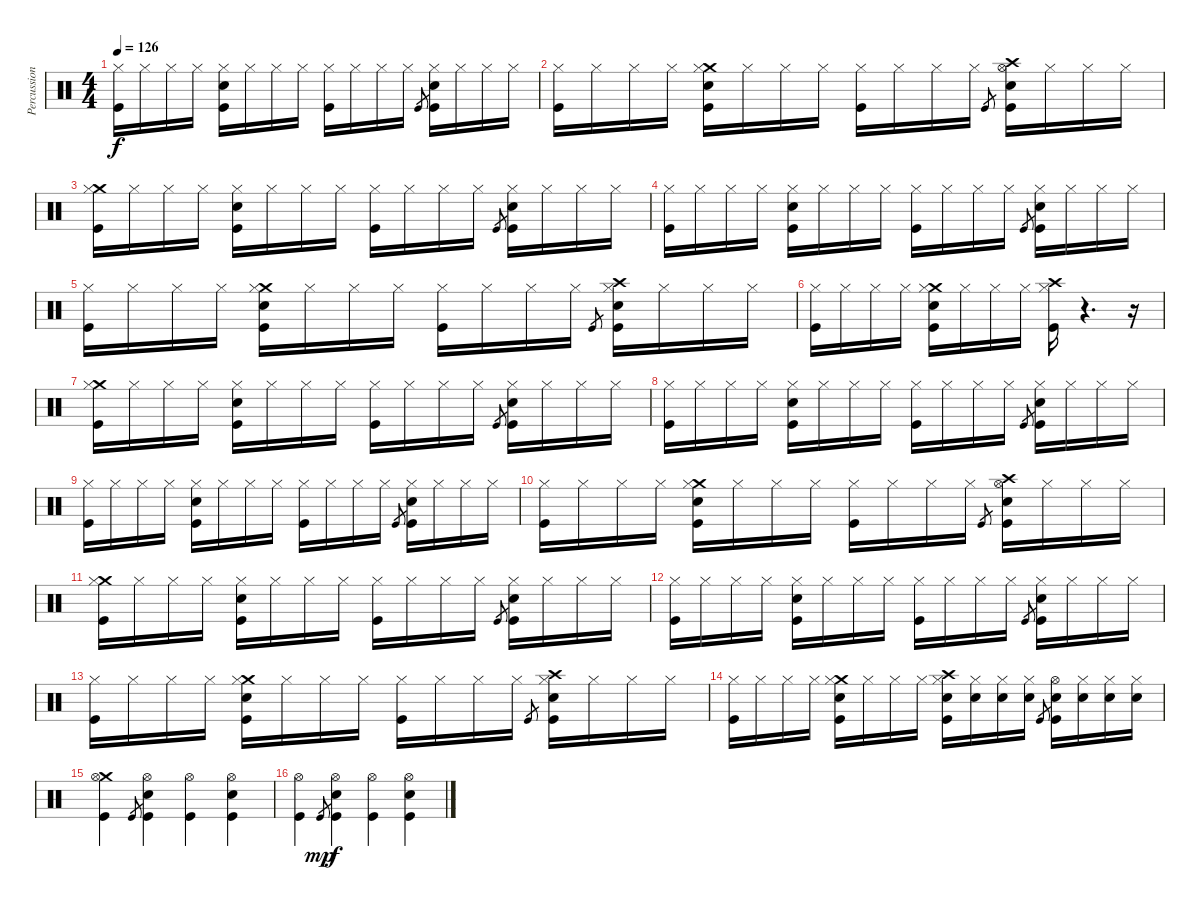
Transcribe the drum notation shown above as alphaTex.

\track ("Percussion" "Percussion") {instrument percussion}
\staff {score}
\articulation defaults
\ts (4 4)
\tempo 126
\clef neutral
\ks c
("Hi-Hat (closed)" "Kick (hit)").16{dy f} "Hi-Hat (closed)".16 "Hi-Hat (closed)".16 "Hi-Hat (closed)".16 ("Hi-Hat (closed)" "Snare (hit) 2" "Kick (hit)").16 "Hi-Hat (closed)".16 "Hi-Hat (closed)".16 "Hi-Hat (closed)".16 ("Hi-Hat (closed)" "Kick (hit)").16 "Hi-Hat (closed)".16 "Hi-Hat (closed)".16 "Hi-Hat (closed)".16 "Kick (hit)".8{gr} ("Hi-Hat (closed)" "Snare (hit) 2" "Kick (hit)").16 "Hi-Hat (closed)".16 "Hi-Hat (closed)".16 "Hi-Hat (closed)".16 |
("Hi-Hat (closed)" "Kick (hit)").16 "Hi-Hat (closed)".16 "Hi-Hat (closed)".16 "Hi-Hat (closed)".16 ("Crash medium (hit)" "Hi-Hat (closed)" "Snare (hit) 2" "Kick (hit)").16 "Hi-Hat (closed)".16 "Hi-Hat (closed)".16 "Hi-Hat (closed)".16 ("Hi-Hat (closed)" "Kick (hit)").16 "Hi-Hat (closed)".16 "Hi-Hat (closed)".16 "Hi-Hat (closed)".16 "Kick (hit)".8{gr} ("Crash high (hit)" "Hi-Hat (open)" "Snare (hit) 2" "Kick (hit)").16 "Hi-Hat (closed)".16 "Hi-Hat (closed)".16 "Hi-Hat (closed)".16 |
("Crash medium (hit)" "Hi-Hat (closed)" "Kick (hit)").16 "Hi-Hat (closed)".16 "Hi-Hat (closed)".16 "Hi-Hat (closed)".16 ("Hi-Hat (closed)" "Snare (hit) 2" "Kick (hit)").16 "Hi-Hat (closed)".16 "Hi-Hat (closed)".16 "Hi-Hat (closed)".16 ("Hi-Hat (closed)" "Kick (hit)").16 "Hi-Hat (closed)".16 "Hi-Hat (closed)".16 "Hi-Hat (closed)".16 "Kick (hit)".8{gr} ("Hi-Hat (closed)" "Snare (hit) 2" "Kick (hit)").16 "Hi-Hat (closed)".16 "Hi-Hat (closed)".16 "Hi-Hat (closed)".16 |
("Hi-Hat (closed)" "Kick (hit)").16 "Hi-Hat (closed)".16 "Hi-Hat (closed)".16 "Hi-Hat (closed)".16 ("Hi-Hat (closed)" "Snare (hit) 2" "Kick (hit)").16 "Hi-Hat (closed)".16 "Hi-Hat (closed)".16 "Hi-Hat (closed)".16 ("Hi-Hat (closed)" "Kick (hit)").16 "Hi-Hat (closed)".16 "Hi-Hat (closed)".16 "Hi-Hat (closed)".16 "Kick (hit)".8{gr} ("Hi-Hat (closed)" "Snare (hit) 2" "Kick (hit)").16 "Hi-Hat (closed)".16 "Hi-Hat (closed)".16 "Hi-Hat (closed)".16 |
("Hi-Hat (closed)" "Kick (hit)").16 "Hi-Hat (closed)".16 "Hi-Hat (closed)".16 "Hi-Hat (closed)".16 ("Crash medium (hit)" "Hi-Hat (closed)" "Snare (hit) 2" "Kick (hit)").16 "Hi-Hat (closed)".16 "Hi-Hat (closed)".16 "Hi-Hat (closed)".16 ("Hi-Hat (closed)" "Kick (hit)").16 "Hi-Hat (closed)".16 "Hi-Hat (closed)".16 "Hi-Hat (closed)".16 "Kick (hit)".8{gr} ("Crash high (hit)" "Hi-Hat (closed)" "Snare (hit) 2" "Kick (hit)").16 "Hi-Hat (closed)".16 "Hi-Hat (closed)".16 "Hi-Hat (closed)".16 |
("Hi-Hat (closed)" "Kick (hit)").16 "Hi-Hat (closed)".16 "Hi-Hat (closed)".16 "Hi-Hat (closed)".16 ("Crash medium (hit)" "Hi-Hat (closed)" "Snare (hit) 2" "Kick (hit)").16 "Hi-Hat (closed)".16 "Hi-Hat (closed)".16 "Hi-Hat (closed)".16 ("Crash high (hit)" "Hi-Hat (closed)" "Kick (hit)").16 r.4{d} r.16 |
("Crash medium (hit)" "Hi-Hat (closed)" "Kick (hit)").16 "Hi-Hat (closed)".16 "Hi-Hat (closed)".16 "Hi-Hat (closed)".16 ("Hi-Hat (closed)" "Snare (hit) 2" "Kick (hit)").16 "Hi-Hat (closed)".16 "Hi-Hat (closed)".16 "Hi-Hat (closed)".16 ("Hi-Hat (closed)" "Kick (hit)").16 "Hi-Hat (closed)".16 "Hi-Hat (closed)".16 "Hi-Hat (closed)".16 "Kick (hit)".8{gr} ("Hi-Hat (closed)" "Snare (hit) 2" "Kick (hit)").16 "Hi-Hat (closed)".16 "Hi-Hat (closed)".16 "Hi-Hat (closed)".16 |
("Hi-Hat (closed)" "Kick (hit)").16 "Hi-Hat (closed)".16 "Hi-Hat (closed)".16 "Hi-Hat (closed)".16 ("Hi-Hat (closed)" "Snare (hit) 2" "Kick (hit)").16 "Hi-Hat (closed)".16 "Hi-Hat (closed)".16 "Hi-Hat (closed)".16 ("Hi-Hat (closed)" "Kick (hit)").16 "Hi-Hat (closed)".16 "Hi-Hat (closed)".16 "Hi-Hat (closed)".16 "Kick (hit)".8{gr} ("Hi-Hat (closed)" "Snare (hit) 2" "Kick (hit)").16 "Hi-Hat (closed)".16 "Hi-Hat (closed)".16 "Hi-Hat (closed)".16 |
("Hi-Hat (closed)" "Kick (hit)").16 "Hi-Hat (closed)".16 "Hi-Hat (closed)".16 "Hi-Hat (closed)".16 ("Hi-Hat (closed)" "Snare (hit) 2" "Kick (hit)").16 "Hi-Hat (closed)".16 "Hi-Hat (closed)".16 "Hi-Hat (closed)".16 ("Hi-Hat (closed)" "Kick (hit)").16 "Hi-Hat (closed)".16 "Hi-Hat (closed)".16 "Hi-Hat (closed)".16 "Kick (hit)".8{gr} ("Hi-Hat (closed)" "Snare (hit) 2" "Kick (hit)").16 "Hi-Hat (closed)".16 "Hi-Hat (closed)".16 "Hi-Hat (closed)".16 |
("Hi-Hat (closed)" "Kick (hit)").16 "Hi-Hat (closed)".16 "Hi-Hat (closed)".16 "Hi-Hat (closed)".16 ("Crash medium (hit)" "Hi-Hat (closed)" "Snare (hit) 2" "Kick (hit)").16 "Hi-Hat (closed)".16 "Hi-Hat (closed)".16 "Hi-Hat (closed)".16 ("Hi-Hat (closed)" "Kick (hit)").16 "Hi-Hat (closed)".16 "Hi-Hat (closed)".16 "Hi-Hat (closed)".16 "Kick (hit)".8{gr} ("Crash high (hit)" "Hi-Hat (open)" "Snare (hit) 2" "Kick (hit)").16 "Hi-Hat (closed)".16 "Hi-Hat (closed)".16 "Hi-Hat (closed)".16 |
("Crash medium (hit)" "Hi-Hat (closed)" "Kick (hit)").16 "Hi-Hat (closed)".16 "Hi-Hat (closed)".16 "Hi-Hat (closed)".16 ("Hi-Hat (closed)" "Snare (hit) 2" "Kick (hit)").16 "Hi-Hat (closed)".16 "Hi-Hat (closed)".16 "Hi-Hat (closed)".16 ("Hi-Hat (closed)" "Kick (hit)").16 "Hi-Hat (closed)".16 "Hi-Hat (closed)".16 "Hi-Hat (closed)".16 "Kick (hit)".8{gr} ("Hi-Hat (closed)" "Snare (hit) 2" "Kick (hit)").16 "Hi-Hat (closed)".16 "Hi-Hat (closed)".16 "Hi-Hat (closed)".16 |
("Hi-Hat (closed)" "Kick (hit)").16 "Hi-Hat (closed)".16 "Hi-Hat (closed)".16 "Hi-Hat (closed)".16 ("Hi-Hat (closed)" "Snare (hit) 2" "Kick (hit)").16 "Hi-Hat (closed)".16 "Hi-Hat (closed)".16 "Hi-Hat (closed)".16 ("Hi-Hat (closed)" "Kick (hit)").16 "Hi-Hat (closed)".16 "Hi-Hat (closed)".16 "Hi-Hat (closed)".16 "Kick (hit)".8{gr} ("Hi-Hat (closed)" "Snare (hit) 2" "Kick (hit)").16 "Hi-Hat (closed)".16 "Hi-Hat (closed)".16 "Hi-Hat (closed)".16 |
("Hi-Hat (closed)" "Kick (hit)").16 "Hi-Hat (closed)".16 "Hi-Hat (closed)".16 "Hi-Hat (closed)".16 ("Crash medium (hit)" "Hi-Hat (closed)" "Snare (hit) 2" "Kick (hit)").16 "Hi-Hat (closed)".16 "Hi-Hat (closed)".16 "Hi-Hat (closed)".16 ("Hi-Hat (closed)" "Kick (hit)").16 "Hi-Hat (closed)".16 "Hi-Hat (closed)".16 "Hi-Hat (closed)".16 "Kick (hit)".8{gr} ("Crash high (hit)" "Hi-Hat (closed)" "Snare (hit) 2" "Kick (hit)").16 "Hi-Hat (closed)".16 "Hi-Hat (closed)".16 "Hi-Hat (closed)".16 |
("Hi-Hat (closed)" "Kick (hit)").16 "Hi-Hat (closed)".16 "Hi-Hat (closed)".16 "Hi-Hat (closed)".16 ("Crash medium (hit)" "Hi-Hat (closed)" "Snare (hit) 2" "Kick (hit)").16 "Hi-Hat (closed)".16 "Hi-Hat (closed)".16 "Hi-Hat (closed)".16 ("Crash high (hit)" "Hi-Hat (closed)" "Snare (hit) 2" "Kick (hit)").16 ("Hi-Hat (closed)" "Snare (hit) 2").16 ("Hi-Hat (closed)" "Snare (hit) 2").16 ("Hi-Hat (closed)" "Snare (hit) 2").16 "Kick (hit)".8{gr} ("Hi-Hat (open)" "Snare (hit) 2" "Kick (hit)").16 ("Hi-Hat (closed)" "Snare (hit) 2").16 ("Hi-Hat (closed)" "Snare (hit) 2").16 ("Hi-Hat (closed)" "Snare (hit) 2").16 |
("Crash medium (hit)" "Hi-Hat (open)" "Kick (hit)").4 "Kick (hit)".8{gr} ("Hi-Hat (open)" "Snare (hit) 2" "Kick (hit)").4 ("Hi-Hat (open)" "Kick (hit)").4 ("Hi-Hat (open)" "Snare (hit) 2" "Kick (hit)").4 |
("Hi-Hat (open)" "Kick (hit)").4 "Kick (hit)".8{gr dy mp} ("Hi-Hat (open)" "Snare (hit) 2" "Kick (hit)").4{dy f} ("Hi-Hat (open)" "Kick (hit)").4 ("Hi-Hat (open)" "Snare (hit) 2" "Kick (hit)").4
